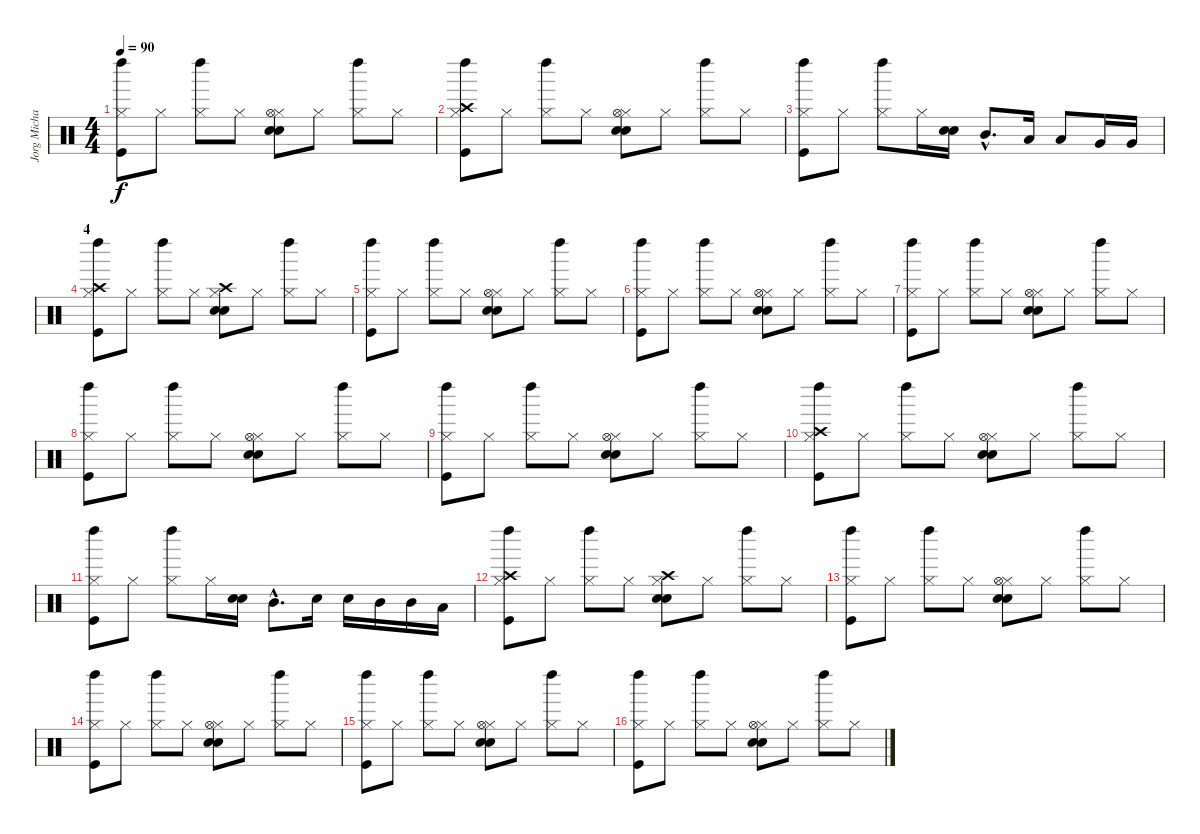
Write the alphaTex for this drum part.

\track ("Jorg Michael - Batteria" "Jorg Micha") {instrument percussion}
\staff {score}
\articulation defaults
\ts (4 4)
\tempo 90
\clef neutral
\ks c
("Kick (hit)" "Hi-Hat (closed)" "Left Maraca (hit)").8{dy f} "Hi-Hat (closed)".8 ("Hi-Hat (closed)" "Left Maraca (hit)").8 "Hi-Hat (closed)".8 ("Snare (hit) 2" "Hi-Hat (closed)" "Electric Snare (hit)" "Hi-Hat (open)").8 "Hi-Hat (closed)".8 ("Hi-Hat (closed)" "Left Maraca (hit)").8 "Hi-Hat (closed)".8 |
("Kick (hit)" "Hi-Hat (closed)" "Left Maraca (hit)" "Crash high (hit)").8 "Hi-Hat (closed)".8 ("Hi-Hat (closed)" "Left Maraca (hit)").8 "Hi-Hat (closed)".8 ("Snare (hit) 2" "Hi-Hat (closed)" "Electric Snare (hit)" "Hi-Hat (open)").8 "Hi-Hat (closed)".8 ("Hi-Hat (closed)" "Left Maraca (hit)").8 "Hi-Hat (closed)".8 |
("Kick (hit)" "Hi-Hat (closed)" "Left Maraca (hit)").8 "Hi-Hat (closed)".8 ("Hi-Hat (closed)" "Left Maraca (hit)").8 "Hi-Hat (closed)".16 ("Snare (hit) 2" "Electric Snare (hit)").16 "Mid Tom (hit)"{hac}.8{d} "Low Tom (hit)".16 "Low Tom (hit)".8 "Very Low Tom (hit)".16 "Very Low Tom (hit)".16 |
\section ("" "4")
("Kick (hit)" "Hi-Hat (closed)" "Left Maraca (hit)" "Crash high (hit)").8 "Hi-Hat (closed)".8 ("Hi-Hat (closed)" "Left Maraca (hit)").8 "Hi-Hat (closed)".8 ("Snare (hit) 2" "Hi-Hat (closed)" "Electric Snare (hit)" "Crash high (hit)").8 "Hi-Hat (closed)".8 ("Hi-Hat (closed)" "Left Maraca (hit)").8 "Hi-Hat (closed)".8 |
("Kick (hit)" "Hi-Hat (closed)" "Left Maraca (hit)").8 "Hi-Hat (closed)".8 ("Hi-Hat (closed)" "Left Maraca (hit)").8 "Hi-Hat (closed)".8 ("Snare (hit) 2" "Hi-Hat (closed)" "Electric Snare (hit)" "Hi-Hat (open)").8 "Hi-Hat (closed)".8 ("Hi-Hat (closed)" "Left Maraca (hit)").8 "Hi-Hat (closed)".8 |
("Kick (hit)" "Hi-Hat (closed)" "Left Maraca (hit)").8 "Hi-Hat (closed)".8 ("Hi-Hat (closed)" "Left Maraca (hit)").8 "Hi-Hat (closed)".8 ("Snare (hit) 2" "Hi-Hat (closed)" "Electric Snare (hit)" "Hi-Hat (open)").8 "Hi-Hat (closed)".8 ("Hi-Hat (closed)" "Left Maraca (hit)").8 "Hi-Hat (closed)".8 |
("Kick (hit)" "Hi-Hat (closed)" "Left Maraca (hit)").8 "Hi-Hat (closed)".8 ("Hi-Hat (closed)" "Left Maraca (hit)").8 "Hi-Hat (closed)".8 ("Snare (hit) 2" "Hi-Hat (closed)" "Electric Snare (hit)" "Hi-Hat (open)").8 "Hi-Hat (closed)".8 ("Hi-Hat (closed)" "Left Maraca (hit)").8 "Hi-Hat (closed)".8 |
("Kick (hit)" "Hi-Hat (closed)" "Left Maraca (hit)").8 "Hi-Hat (closed)".8 ("Hi-Hat (closed)" "Left Maraca (hit)").8 "Hi-Hat (closed)".8 ("Snare (hit) 2" "Hi-Hat (closed)" "Electric Snare (hit)" "Hi-Hat (open)").8 "Hi-Hat (closed)".8 ("Hi-Hat (closed)" "Left Maraca (hit)").8 "Hi-Hat (closed)".8 |
("Kick (hit)" "Hi-Hat (closed)" "Left Maraca (hit)").8 "Hi-Hat (closed)".8 ("Hi-Hat (closed)" "Left Maraca (hit)").8 "Hi-Hat (closed)".8 ("Snare (hit) 2" "Hi-Hat (closed)" "Electric Snare (hit)" "Hi-Hat (open)").8 "Hi-Hat (closed)".8 ("Hi-Hat (closed)" "Left Maraca (hit)").8 "Hi-Hat (closed)".8 |
("Kick (hit)" "Hi-Hat (closed)" "Left Maraca (hit)" "Crash high (hit)").8 "Hi-Hat (closed)".8 ("Hi-Hat (closed)" "Left Maraca (hit)").8 "Hi-Hat (closed)".8 ("Snare (hit) 2" "Hi-Hat (closed)" "Electric Snare (hit)" "Hi-Hat (open)").8 "Hi-Hat (closed)".8 ("Hi-Hat (closed)" "Left Maraca (hit)").8 "Hi-Hat (closed)".8 |
("Kick (hit)" "Hi-Hat (closed)" "Left Maraca (hit)").8 "Hi-Hat (closed)".8 ("Hi-Hat (closed)" "Left Maraca (hit)").8 "Hi-Hat (closed)".16 ("Snare (hit) 2" "Electric Snare (hit)").16 "Mid Tom (hit)"{hac}.8{d} "Snare (hit) 2".16 "Electric Snare (hit)".16 "Mid Tom (hit)".16 "Mid Tom (hit)".16 "Low Tom (hit)".16 |
("Kick (hit)" "Hi-Hat (closed)" "Left Maraca (hit)" "Crash high (hit)").8 "Hi-Hat (closed)".8 ("Hi-Hat (closed)" "Left Maraca (hit)").8 "Hi-Hat (closed)".8 ("Snare (hit) 2" "Hi-Hat (closed)" "Electric Snare (hit)" "Crash high (hit)").8 "Hi-Hat (closed)".8 ("Hi-Hat (closed)" "Left Maraca (hit)").8 "Hi-Hat (closed)".8 |
("Kick (hit)" "Hi-Hat (closed)" "Left Maraca (hit)").8 "Hi-Hat (closed)".8 ("Hi-Hat (closed)" "Left Maraca (hit)").8 "Hi-Hat (closed)".8 ("Snare (hit) 2" "Hi-Hat (closed)" "Electric Snare (hit)" "Hi-Hat (open)").8 "Hi-Hat (closed)".8 ("Hi-Hat (closed)" "Left Maraca (hit)").8 "Hi-Hat (closed)".8 |
("Kick (hit)" "Hi-Hat (closed)" "Left Maraca (hit)").8 "Hi-Hat (closed)".8 ("Hi-Hat (closed)" "Left Maraca (hit)").8 "Hi-Hat (closed)".8 ("Snare (hit) 2" "Hi-Hat (closed)" "Electric Snare (hit)" "Hi-Hat (open)").8 "Hi-Hat (closed)".8 ("Hi-Hat (closed)" "Left Maraca (hit)").8 "Hi-Hat (closed)".8 |
("Kick (hit)" "Hi-Hat (closed)" "Left Maraca (hit)").8 "Hi-Hat (closed)".8 ("Hi-Hat (closed)" "Left Maraca (hit)").8 "Hi-Hat (closed)".8 ("Snare (hit) 2" "Hi-Hat (closed)" "Electric Snare (hit)" "Hi-Hat (open)").8 "Hi-Hat (closed)".8 ("Hi-Hat (closed)" "Left Maraca (hit)").8 "Hi-Hat (closed)".8 |
("Kick (hit)" "Hi-Hat (closed)" "Left Maraca (hit)").8 "Hi-Hat (closed)".8 ("Hi-Hat (closed)" "Left Maraca (hit)").8 "Hi-Hat (closed)".8 ("Snare (hit) 2" "Hi-Hat (closed)" "Electric Snare (hit)" "Hi-Hat (open)").8 "Hi-Hat (closed)".8 ("Hi-Hat (closed)" "Left Maraca (hit)").8 "Hi-Hat (closed)".8
